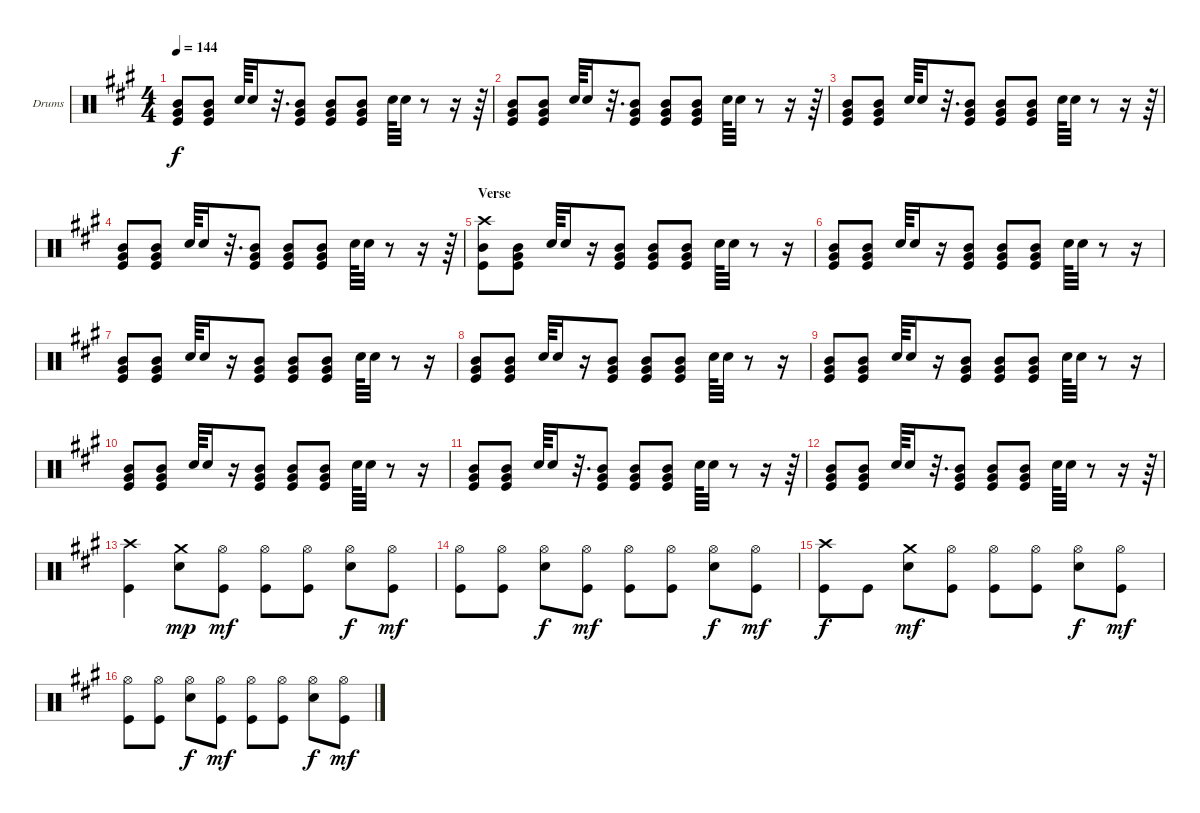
\defaultSystemsLayout 4
\bracketExtendMode groupsimilarinstruments
\firstSystemTrackNameOrientation horizontal
\otherSystemsTrackNameOrientation horizontal
\track ("Drumkit" "Drums") {instrument percussion}
\staff {score}
\articulation defaults
\ts (4 4)
\tempo 144
\clef neutral
\scale
1.05801
\ks a
("Mid Tom (hit)" "Very Low Tom (hit)" "Kick (hit)").8{dy f} ("Mid Tom (hit)" "Very Low Tom (hit)" "Kick (hit)").8 "Snare (hit) 2".64 "Snare (hit) 2".16 r.32{d} ("Mid Tom (hit)" "Very Low Tom (hit)" "Kick (hit)").8 ("Mid Tom (hit)" "Very Low Tom (hit)" "Kick (hit)").8 ("Mid Tom (hit)" "Very Low Tom (hit)" "Kick (hit)").8 "Snare (hit) 2".64 "Snare (hit) 2".32 r.8 r.16 r.64 |
\scale
0.941992 ("Mid Tom (hit)" "Very Low Tom (hit)" "Kick (hit)").8 ("Mid Tom (hit)" "Very Low Tom (hit)" "Kick (hit)").8 "Snare (hit) 2".64 "Snare (hit) 2".16 r.32{d} ("Mid Tom (hit)" "Very Low Tom (hit)" "Kick (hit)").8 ("Mid Tom (hit)" "Very Low Tom (hit)" "Kick (hit)").8 ("Mid Tom (hit)" "Very Low Tom (hit)" "Kick (hit)").8 "Snare (hit) 2".64 "Snare (hit) 2".32 r.8 r.16 r.64 |
\scale
1.05801 ("Mid Tom (hit)" "Very Low Tom (hit)" "Kick (hit)").8 ("Mid Tom (hit)" "Very Low Tom (hit)" "Kick (hit)").8 "Snare (hit) 2".64 "Snare (hit) 2".16 r.32{d} ("Mid Tom (hit)" "Very Low Tom (hit)" "Kick (hit)").8 ("Mid Tom (hit)" "Very Low Tom (hit)" "Kick (hit)").8 ("Mid Tom (hit)" "Very Low Tom (hit)" "Kick (hit)").8 "Snare (hit) 2".64 "Snare (hit) 2".32 r.8 r.16 r.64 |
\scale
0.941992 ("Mid Tom (hit)" "Very Low Tom (hit)" "Kick (hit)").8 ("Mid Tom (hit)" "Very Low Tom (hit)" "Kick (hit)").8 "Snare (hit) 2".64 "Snare (hit) 2".16 r.32{d} ("Mid Tom (hit)" "Very Low Tom (hit)" "Kick (hit)").8 ("Mid Tom (hit)" "Very Low Tom (hit)" "Kick (hit)").8 ("Mid Tom (hit)" "Very Low Tom (hit)" "Kick (hit)").8 "Snare (hit) 2".64 "Snare (hit) 2".32 r.8 r.16 r.64 |
\section ("" "Verse")
\scale
1.05801 ("Crash high (hit)" "Mid Tom (hit)" "Kick (hit)").8 ("Mid Tom (hit)" "Very Low Tom (hit)" "Kick (hit)").8 "Snare (hit) 2".64 "Snare (hit) 2".16 r.16 ("Mid Tom (hit)" "Very Low Tom (hit)" "Kick (hit)").8 ("Mid Tom (hit)" "Very Low Tom (hit)" "Kick (hit)").8 ("Mid Tom (hit)" "Very Low Tom (hit)" "Kick (hit)").8 "Snare (hit) 2".64 "Snare (hit) 2".32 r.8 r.16 |
\scale
0.941992 ("Mid Tom (hit)" "Very Low Tom (hit)" "Kick (hit)").8 ("Mid Tom (hit)" "Very Low Tom (hit)" "Kick (hit)").8 "Snare (hit) 2".64 "Snare (hit) 2".16 r.16 ("Mid Tom (hit)" "Very Low Tom (hit)" "Kick (hit)").8 ("Mid Tom (hit)" "Very Low Tom (hit)" "Kick (hit)").8 ("Mid Tom (hit)" "Very Low Tom (hit)" "Kick (hit)").8 "Snare (hit) 2".64 "Snare (hit) 2".32 r.8 r.16 |
\scale
1.05801 ("Mid Tom (hit)" "Very Low Tom (hit)" "Kick (hit)").8 ("Mid Tom (hit)" "Very Low Tom (hit)" "Kick (hit)").8 "Snare (hit) 2".64 "Snare (hit) 2".16 r.16 ("Mid Tom (hit)" "Very Low Tom (hit)" "Kick (hit)").8 ("Mid Tom (hit)" "Very Low Tom (hit)" "Kick (hit)").8 ("Mid Tom (hit)" "Very Low Tom (hit)" "Kick (hit)").8 "Snare (hit) 2".64 "Snare (hit) 2".32 r.8 r.16 |
\scale
0.941992 ("Mid Tom (hit)" "Very Low Tom (hit)" "Kick (hit)").8 ("Mid Tom (hit)" "Very Low Tom (hit)" "Kick (hit)").8 "Snare (hit) 2".64 "Snare (hit) 2".16 r.16 ("Mid Tom (hit)" "Very Low Tom (hit)" "Kick (hit)").8 ("Mid Tom (hit)" "Very Low Tom (hit)" "Kick (hit)").8 ("Mid Tom (hit)" "Very Low Tom (hit)" "Kick (hit)").8 "Snare (hit) 2".64 "Snare (hit) 2".32 r.8 r.16 |
\scale
1.05801 ("Mid Tom (hit)" "Very Low Tom (hit)" "Kick (hit)").8 ("Mid Tom (hit)" "Very Low Tom (hit)" "Kick (hit)").8 "Snare (hit) 2".64 "Snare (hit) 2".16 r.16 ("Mid Tom (hit)" "Very Low Tom (hit)" "Kick (hit)").8 ("Mid Tom (hit)" "Very Low Tom (hit)" "Kick (hit)").8 ("Mid Tom (hit)" "Very Low Tom (hit)" "Kick (hit)").8 "Snare (hit) 2".64 "Snare (hit) 2".32 r.8 r.16 |
\scale
0.941992 ("Mid Tom (hit)" "Very Low Tom (hit)" "Kick (hit)").8 ("Mid Tom (hit)" "Very Low Tom (hit)" "Kick (hit)").8 "Snare (hit) 2".64 "Snare (hit) 2".16 r.16 ("Mid Tom (hit)" "Very Low Tom (hit)" "Kick (hit)").8 ("Mid Tom (hit)" "Very Low Tom (hit)" "Kick (hit)").8 ("Mid Tom (hit)" "Very Low Tom (hit)" "Kick (hit)").8 "Snare (hit) 2".64 "Snare (hit) 2".32 r.8 r.16 |
\scale
1.05801 ("Mid Tom (hit)" "Very Low Tom (hit)" "Kick (hit)").8 ("Mid Tom (hit)" "Very Low Tom (hit)" "Kick (hit)").8 "Snare (hit) 2".64 "Snare (hit) 2".16 r.32{d} ("Mid Tom (hit)" "Very Low Tom (hit)" "Kick (hit)").8 ("Mid Tom (hit)" "Very Low Tom (hit)" "Kick (hit)").8 ("Mid Tom (hit)" "Very Low Tom (hit)" "Kick (hit)").8 "Snare (hit) 2".64 "Snare (hit) 2".32 r.8 r.16 r.64 |
\scale
0.941992 ("Mid Tom (hit)" "Very Low Tom (hit)" "Kick (hit)").8 ("Mid Tom (hit)" "Very Low Tom (hit)" "Kick (hit)").8 "Snare (hit) 2".64 "Snare (hit) 2".16 r.32{d} ("Mid Tom (hit)" "Very Low Tom (hit)" "Kick (hit)").8 ("Mid Tom (hit)" "Very Low Tom (hit)" "Kick (hit)").8 ("Mid Tom (hit)" "Very Low Tom (hit)" "Kick (hit)").8 "Snare (hit) 2".64 "Snare (hit) 2".32 r.8 r.16 r.64 |
\scale
1.05801 ("Crash high (hit)" "Kick (hit)").4 ("Crash medium (hit)" "Snare (hit) 2").8{dy mp} ("Hi-Hat (open)" "Kick (hit)").8{dy mf} ("Hi-Hat (open)" "Kick (hit)").8 ("Hi-Hat (open)" "Kick (hit)").8 ("Hi-Hat (open)" "Snare (hit) 2").8{dy f} ("Hi-Hat (open)" "Kick (hit)").8{dy mf} |
\scale
0.941992 ("Hi-Hat (open)" "Kick (hit)").8 ("Hi-Hat (open)" "Kick (hit)").8 ("Hi-Hat (open)" "Snare (hit) 2").8{dy f} ("Hi-Hat (open)" "Kick (hit)").8{dy mf} ("Hi-Hat (open)" "Kick (hit)").8 ("Hi-Hat (open)" "Kick (hit)").8 ("Hi-Hat (open)" "Snare (hit) 2").8{dy f} ("Hi-Hat (open)" "Kick (hit)").8{dy mf} |
\scale
1.05801 ("Crash high (hit)" "Kick (hit)").8{dy f} "Kick (hit)".8 ("Crash medium (hit)" "Snare (hit) 2").8{dy mf} ("Hi-Hat (open)" "Kick (hit)").8 ("Hi-Hat (open)" "Kick (hit)").8 ("Hi-Hat (open)" "Kick (hit)").8 ("Hi-Hat (open)" "Snare (hit) 2").8{dy f} ("Hi-Hat (open)" "Kick (hit)").8{dy mf} |
\scale
0.941992 ("Hi-Hat (open)" "Kick (hit)").8 ("Hi-Hat (open)" "Kick (hit)").8 ("Hi-Hat (open)" "Snare (hit) 2").8{dy f} ("Hi-Hat (open)" "Kick (hit)").8{dy mf} ("Hi-Hat (open)" "Kick (hit)").8 ("Hi-Hat (open)" "Kick (hit)").8 ("Hi-Hat (open)" "Snare (hit) 2").8{dy f} ("Hi-Hat (open)" "Kick (hit)").8{dy mf}
